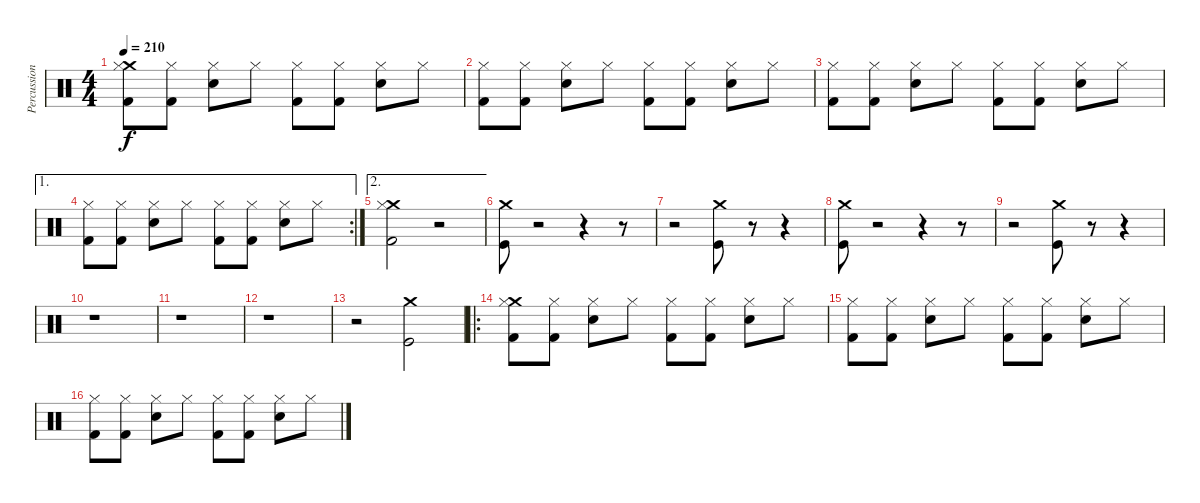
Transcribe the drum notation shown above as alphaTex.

\track ("Percussion" "Percussion") {instrument percussion}
\staff {score}
\articulation defaults
\ts (4 4)
\tempo 210
\clef neutral
\ks c
("Crash medium (hit)" "Hi-Hat (closed)" "Kick (hit) 2").8{dy f} ("Hi-Hat (closed)" "Kick (hit) 2").8 ("Hi-Hat (closed)" "Electric Snare (hit)").8 "Hi-Hat (closed)".8 ("Hi-Hat (closed)" "Kick (hit) 2").8 ("Hi-Hat (closed)" "Kick (hit) 2").8 ("Hi-Hat (closed)" "Electric Snare (hit)").8 "Hi-Hat (closed)".8 |
("Hi-Hat (closed)" "Kick (hit) 2").8 ("Hi-Hat (closed)" "Kick (hit) 2").8 ("Hi-Hat (closed)" "Electric Snare (hit)").8 "Hi-Hat (closed)".8 ("Hi-Hat (closed)" "Kick (hit) 2").8 ("Hi-Hat (closed)" "Kick (hit) 2").8 ("Hi-Hat (closed)" "Electric Snare (hit)").8 "Hi-Hat (closed)".8 |
("Hi-Hat (closed)" "Kick (hit) 2").8 ("Hi-Hat (closed)" "Kick (hit) 2").8 ("Hi-Hat (closed)" "Electric Snare (hit)").8 "Hi-Hat (closed)".8 ("Hi-Hat (closed)" "Kick (hit) 2").8 ("Hi-Hat (closed)" "Kick (hit) 2").8 ("Hi-Hat (closed)" "Electric Snare (hit)").8 "Hi-Hat (closed)".8 |
\ae 1
\rc 2
("Hi-Hat (closed)" "Kick (hit) 2").8 ("Hi-Hat (closed)" "Kick (hit) 2").8 ("Hi-Hat (closed)" "Electric Snare (hit)").8 "Hi-Hat (closed)".8 ("Hi-Hat (closed)" "Kick (hit) 2").8 ("Hi-Hat (closed)" "Kick (hit) 2").8 ("Hi-Hat (closed)" "Electric Snare (hit)").8 "Hi-Hat (closed)".8 |
\ae 2
("Crash medium (hit)" "Hi-Hat (closed)" "Kick (hit) 2").2 r.2 |
("Kick (hit)" "Crash medium (hit)").8 r.2 r.4 r.8 |
r.2 ("Crash medium (hit)" "Kick (hit)").8 r.8 r.4 |
("Kick (hit)" "Crash medium (hit)").8 r.2 r.4 r.8 |
r.2 ("Crash medium (hit)" "Kick (hit)").8 r.8 r.4 |
r.1 |
r.1 |
r.1 |
r.2 ("Kick (hit)" "Crash medium (hit)").2 |
\ro
("Crash medium (hit)" "Hi-Hat (closed)" "Kick (hit) 2").8 ("Hi-Hat (closed)" "Kick (hit) 2").8 ("Hi-Hat (closed)" "Electric Snare (hit)").8 "Hi-Hat (closed)".8 ("Hi-Hat (closed)" "Kick (hit) 2").8 ("Hi-Hat (closed)" "Kick (hit) 2").8 ("Hi-Hat (closed)" "Electric Snare (hit)").8 "Hi-Hat (closed)".8 |
("Hi-Hat (closed)" "Kick (hit) 2").8 ("Hi-Hat (closed)" "Kick (hit) 2").8 ("Hi-Hat (closed)" "Electric Snare (hit)").8 "Hi-Hat (closed)".8 ("Hi-Hat (closed)" "Kick (hit) 2").8 ("Hi-Hat (closed)" "Kick (hit) 2").8 ("Hi-Hat (closed)" "Electric Snare (hit)").8 "Hi-Hat (closed)".8 |
("Hi-Hat (closed)" "Kick (hit) 2").8 ("Hi-Hat (closed)" "Kick (hit) 2").8 ("Hi-Hat (closed)" "Electric Snare (hit)").8 "Hi-Hat (closed)".8 ("Hi-Hat (closed)" "Kick (hit) 2").8 ("Hi-Hat (closed)" "Kick (hit) 2").8 ("Hi-Hat (closed)" "Electric Snare (hit)").8 "Hi-Hat (closed)".8
